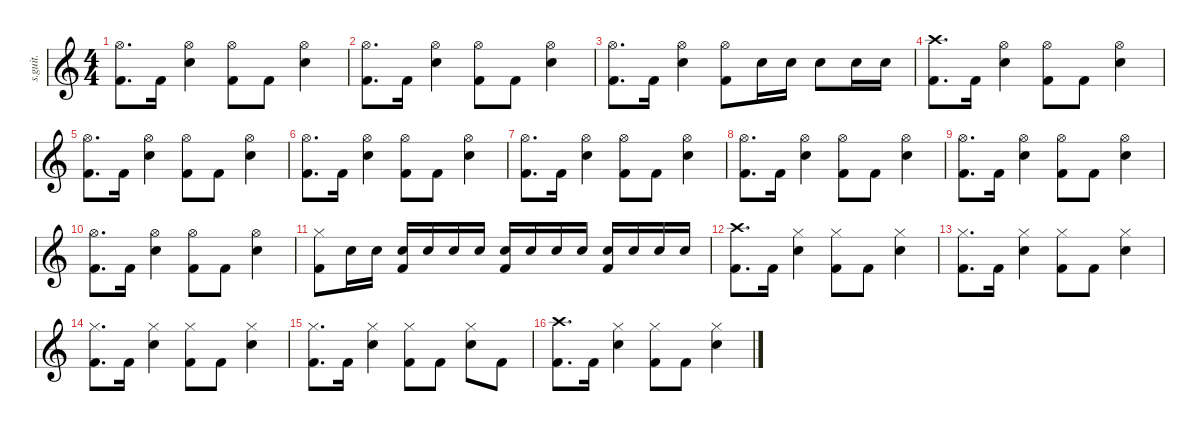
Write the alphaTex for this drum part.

\defaultSystemsLayout 4
\hideDynamics
\bracketExtendMode nobrackets
\track ("" "s.guit.") {instrument percussion}
\staff {score}
\articulation defaults
\ts (4 4)
\tempo (180 hide)
\clef g2
\ks c
("Kick (hit) 2" "Hi-Hat (open)").8{d dy f} "Kick (hit) 2".16 ("Snare (hit) 2" "Hi-Hat (open)").4 ("Kick (hit) 2" "Hi-Hat (open)").8 "Kick (hit) 2".8 ("Snare (hit) 2" "Hi-Hat (open)").4 |
("Kick (hit) 2" "Hi-Hat (open)").8{d} "Kick (hit) 2".16 ("Snare (hit) 2" "Hi-Hat (open)").4 ("Kick (hit) 2" "Hi-Hat (open)").8 "Kick (hit) 2".8 ("Snare (hit) 2" "Hi-Hat (open)").4 |
("Kick (hit) 2" "Hi-Hat (open)").8{d} "Kick (hit) 2".16 ("Snare (hit) 2" "Hi-Hat (open)").4 ("Kick (hit) 2" "Hi-Hat (open)").8 "Snare (hit) 2".16 "Snare (hit) 2".16 "Snare (hit) 2".8 "Snare (hit) 2".16 "Snare (hit) 2".16 |
("Kick (hit) 2" "Crash high (hit)").8{d} "Kick (hit) 2".16 ("Snare (hit) 2" "Hi-Hat (open)").4 ("Kick (hit) 2" "Hi-Hat (open)").8 "Kick (hit) 2".8 ("Snare (hit) 2" "Hi-Hat (open)").4 |
("Kick (hit) 2" "Hi-Hat (open)").8{d} "Kick (hit) 2".16 ("Snare (hit) 2" "Hi-Hat (open)").4 ("Kick (hit) 2" "Hi-Hat (open)").8 "Kick (hit) 2".8 ("Snare (hit) 2" "Hi-Hat (open)").4 |
("Kick (hit) 2" "Hi-Hat (open)").8{d} "Kick (hit) 2".16 ("Snare (hit) 2" "Hi-Hat (open)").4 ("Kick (hit) 2" "Hi-Hat (open)").8 "Kick (hit) 2".8 ("Snare (hit) 2" "Hi-Hat (open)").4 |
("Kick (hit) 2" "Hi-Hat (open)").8{d} "Kick (hit) 2".16 ("Snare (hit) 2" "Hi-Hat (open)").4 ("Kick (hit) 2" "Hi-Hat (open)").8 "Kick (hit) 2".8 ("Snare (hit) 2" "Hi-Hat (open)").4 |
("Kick (hit) 2" "Hi-Hat (open)").8{d} "Kick (hit) 2".16 ("Snare (hit) 2" "Hi-Hat (open)").4 ("Kick (hit) 2" "Hi-Hat (open)").8 "Kick (hit) 2".8 ("Snare (hit) 2" "Hi-Hat (open)").4 |
("Kick (hit) 2" "Hi-Hat (open)").8{d} "Kick (hit) 2".16 ("Snare (hit) 2" "Hi-Hat (open)").4 ("Kick (hit) 2" "Hi-Hat (open)").8 "Kick (hit) 2".8 ("Snare (hit) 2" "Hi-Hat (open)").4 |
("Kick (hit) 2" "Hi-Hat (open)").8{d} "Kick (hit) 2".16 ("Snare (hit) 2" "Hi-Hat (open)").4 ("Kick (hit) 2" "Hi-Hat (open)").8 "Kick (hit) 2".8 ("Snare (hit) 2" "Hi-Hat (open)").4 |
("Kick (hit) 2" "Hi-Hat (closed)").8 "Snare (hit) 2".16 "Snare (hit) 2".16 ("Kick (hit) 2" "Snare (hit) 2").16 "Snare (hit) 2".16 "Snare (hit) 2".16 "Snare (hit) 2".16 ("Kick (hit) 2" "Snare (hit) 2").16 "Snare (hit) 2".16 "Snare (hit) 2".16 "Snare (hit) 2".16 ("Kick (hit) 2" "Snare (hit) 2").16 "Snare (hit) 2".16 "Snare (hit) 2".16 "Snare (hit) 2".16 |
("Kick (hit) 2" "Crash high (hit)").8{d} "Kick (hit) 2".16 ("Snare (hit) 2" "Hi-Hat (closed)").4 ("Kick (hit) 2" "Hi-Hat (closed)").8 "Kick (hit) 2".8 ("Snare (hit) 2" "Hi-Hat (closed)").4 |
("Kick (hit) 2" "Hi-Hat (closed)").8{d} "Kick (hit) 2".16 ("Snare (hit) 2" "Hi-Hat (closed)").4 ("Kick (hit) 2" "Hi-Hat (closed)").8 "Kick (hit) 2".8 ("Snare (hit) 2" "Hi-Hat (closed)").4 |
("Kick (hit) 2" "Hi-Hat (closed)").8{d} "Kick (hit) 2".16 ("Snare (hit) 2" "Hi-Hat (closed)").4 ("Kick (hit) 2" "Hi-Hat (closed)").8 "Kick (hit) 2".8 ("Snare (hit) 2" "Hi-Hat (closed)").4 |
("Kick (hit) 2" "Hi-Hat (closed)").8{d} "Kick (hit) 2".16 ("Snare (hit) 2" "Hi-Hat (closed)").4 ("Kick (hit) 2" "Hi-Hat (closed)").8 "Kick (hit) 2".8 ("Snare (hit) 2" "Hi-Hat (closed)").8 "Kick (hit) 2".8 |
("Kick (hit) 2" "Crash high (hit)").8{d} "Kick (hit) 2".16 ("Snare (hit) 2" "Hi-Hat (closed)").4 ("Kick (hit) 2" "Hi-Hat (closed)").8 "Kick (hit) 2".8 ("Snare (hit) 2" "Hi-Hat (closed)").4
